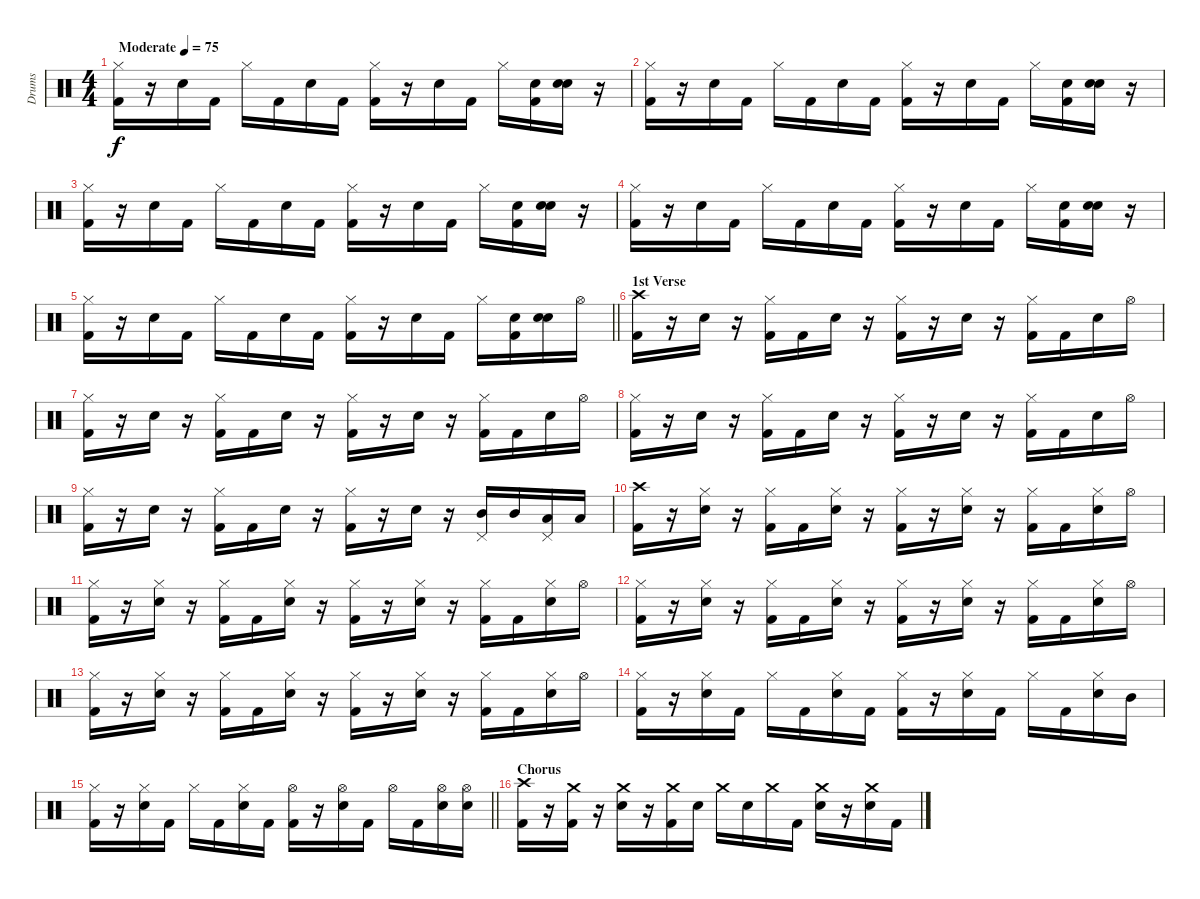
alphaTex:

\track ("Drums" "Drums") {instrument percussion}
\staff {score}
\articulation defaults
\ts (4 4)
\tempo (75 "Moderate")
\clef neutral
\ks c
("Kick (hit) 2" "Hi-Hat (closed)").16{dy f} r.16 "Snare (hit) 2".16 "Kick (hit) 2".16 "Hi-Hat (closed)".16 "Kick (hit) 2".16 "Snare (hit) 2".16 "Kick (hit) 2".16 ("Kick (hit) 2" "Hi-Hat (closed)").16 r.16 "Snare (hit) 2".16 "Kick (hit) 2".16 "Hi-Hat (closed)".16 ("Kick (hit) 2" "Hand Clap (hit)").16 ("Hand Clap (hit)" "Snare (hit) 2").16 r.16 |
("Kick (hit) 2" "Hi-Hat (closed)").16 r.16 "Snare (hit) 2".16 "Kick (hit) 2".16 "Hi-Hat (closed)".16 "Kick (hit) 2".16 "Snare (hit) 2".16 "Kick (hit) 2".16 ("Kick (hit) 2" "Hi-Hat (closed)").16 r.16 "Snare (hit) 2".16 "Kick (hit) 2".16 "Hi-Hat (closed)".16 ("Kick (hit) 2" "Hand Clap (hit)").16 ("Hand Clap (hit)" "Snare (hit) 2").16 r.16 |
("Kick (hit) 2" "Hi-Hat (closed)").16 r.16 "Snare (hit) 2".16 "Kick (hit) 2".16 "Hi-Hat (closed)".16 "Kick (hit) 2".16 "Snare (hit) 2".16 "Kick (hit) 2".16 ("Kick (hit) 2" "Hi-Hat (closed)").16 r.16 "Snare (hit) 2".16 "Kick (hit) 2".16 "Hi-Hat (closed)".16 ("Kick (hit) 2" "Hand Clap (hit)").16 ("Hand Clap (hit)" "Snare (hit) 2").16 r.16 |
("Kick (hit) 2" "Hi-Hat (closed)").16 r.16 "Snare (hit) 2".16 "Kick (hit) 2".16 "Hi-Hat (closed)".16 "Kick (hit) 2".16 "Snare (hit) 2".16 "Kick (hit) 2".16 ("Kick (hit) 2" "Hi-Hat (closed)").16 r.16 "Snare (hit) 2".16 "Kick (hit) 2".16 "Hi-Hat (closed)".16 ("Kick (hit) 2" "Hand Clap (hit)").16 ("Hand Clap (hit)" "Snare (hit) 2").16 r.16 |
\barLineRight lightlight
("Kick (hit) 2" "Hi-Hat (closed)").16 r.16 "Snare (hit) 2".16 "Kick (hit) 2".16 "Hi-Hat (closed)".16 "Kick (hit) 2".16 "Snare (hit) 2".16 "Kick (hit) 2".16 ("Kick (hit) 2" "Hi-Hat (closed)").16 r.16 "Snare (hit) 2".16 "Kick (hit) 2".16 "Hi-Hat (closed)".16 ("Kick (hit) 2" "Hand Clap (hit)").16 ("Hand Clap (hit)" "Snare (hit) 2").16 "Hi-Hat (open)".16 |
\section ("" "1st Verse")
("Kick (hit) 2" "Crash high (hit)").16 r.16 "Snare (hit) 2".16 r.16 ("Kick (hit) 2" "Hi-Hat (closed)").16 "Kick (hit) 2".16 "Snare (hit) 2".16 r.16 ("Kick (hit) 2" "Hi-Hat (closed)").16 r.16 "Snare (hit) 2".16 r.16 ("Kick (hit) 2" "Hi-Hat (closed)").16 "Kick (hit) 2".16 "Snare (hit) 2".16 "Hi-Hat (open)".16 |
("Kick (hit) 2" "Hi-Hat (closed)").16 r.16 "Snare (hit) 2".16 r.16 ("Kick (hit) 2" "Hi-Hat (closed)").16 "Kick (hit) 2".16 "Snare (hit) 2".16 r.16 ("Kick (hit) 2" "Hi-Hat (closed)").16 r.16 "Snare (hit) 2".16 r.16 ("Kick (hit) 2" "Hi-Hat (closed)").16 "Kick (hit) 2".16 "Snare (hit) 2".16 "Hi-Hat (open)".16 |
("Kick (hit) 2" "Hi-Hat (closed)").16 r.16 "Snare (hit) 2".16 r.16 ("Kick (hit) 2" "Hi-Hat (closed)").16 "Kick (hit) 2".16 "Snare (hit) 2".16 r.16 ("Kick (hit) 2" "Hi-Hat (closed)").16 r.16 "Snare (hit) 2".16 r.16 ("Kick (hit) 2" "Hi-Hat (closed)").16 "Kick (hit) 2".16 "Snare (hit) 2".16 "Hi-Hat (open)".16 |
("Kick (hit) 2" "Hi-Hat (closed)").16 r.16 "Snare (hit) 2".16 r.16 ("Kick (hit) 2" "Hi-Hat (closed)").16 "Kick (hit) 2".16 "Snare (hit) 2".16 r.16 ("Kick (hit) 2" "Hi-Hat (closed)").16 r.16 "Snare (hit) 2".16 r.16 ("Mid Tom (hit)" "Pedal Hi-Hat (hit)").16 "Mid Tom (hit)".16 ("Low Tom (hit)" "Pedal Hi-Hat (hit)").16 "Low Tom (hit)".16 |
("Kick (hit) 2" "Crash high (hit)").16 r.16 ("Snare (hit) 2" "Hi-Hat (closed)").16 r.16 ("Kick (hit) 2" "Hi-Hat (closed)").16 "Kick (hit) 2".16 ("Snare (hit) 2" "Hi-Hat (closed)").16 r.16 ("Kick (hit) 2" "Hi-Hat (closed)").16 r.16 ("Snare (hit) 2" "Hi-Hat (closed)").16 r.16 ("Kick (hit) 2" "Hi-Hat (closed)").16 "Kick (hit) 2".16 ("Snare (hit) 2" "Hi-Hat (closed)").16 "Hi-Hat (open)".16 |
("Kick (hit) 2" "Hi-Hat (closed)").16 r.16 ("Snare (hit) 2" "Hi-Hat (closed)").16 r.16 ("Kick (hit) 2" "Hi-Hat (closed)").16 "Kick (hit) 2".16 ("Snare (hit) 2" "Hi-Hat (closed)").16 r.16 ("Kick (hit) 2" "Hi-Hat (closed)").16 r.16 ("Snare (hit) 2" "Hi-Hat (closed)").16 r.16 ("Kick (hit) 2" "Hi-Hat (closed)").16 "Kick (hit) 2".16 ("Snare (hit) 2" "Hi-Hat (closed)").16 "Hi-Hat (open)".16 |
("Kick (hit) 2" "Hi-Hat (closed)").16 r.16 ("Snare (hit) 2" "Hi-Hat (closed)").16 r.16 ("Kick (hit) 2" "Hi-Hat (closed)").16 "Kick (hit) 2".16 ("Snare (hit) 2" "Hi-Hat (closed)").16 r.16 ("Kick (hit) 2" "Hi-Hat (closed)").16 r.16 ("Snare (hit) 2" "Hi-Hat (closed)").16 r.16 ("Kick (hit) 2" "Hi-Hat (closed)").16 "Kick (hit) 2".16 ("Snare (hit) 2" "Hi-Hat (closed)").16 "Hi-Hat (open)".16 |
("Kick (hit) 2" "Hi-Hat (closed)").16 r.16 ("Snare (hit) 2" "Hi-Hat (closed)").16 r.16 ("Kick (hit) 2" "Hi-Hat (closed)").16 "Kick (hit) 2".16 ("Snare (hit) 2" "Hi-Hat (closed)").16 r.16 ("Kick (hit) 2" "Hi-Hat (closed)").16 r.16 ("Snare (hit) 2" "Hi-Hat (closed)").16 r.16 ("Kick (hit) 2" "Hi-Hat (closed)").16 "Kick (hit) 2".16 ("Snare (hit) 2" "Hi-Hat (closed)").16 "Hi-Hat (open)".16 |
("Kick (hit) 2" "Hi-Hat (closed)").16 r.16 ("Snare (hit) 2" "Hi-Hat (closed)").16 "Kick (hit) 2".16 "Hi-Hat (closed)".16 "Kick (hit) 2".16 ("Snare (hit) 2" "Hi-Hat (closed)").16 "Kick (hit) 2".16 ("Kick (hit) 2" "Hi-Hat (closed)").16 r.16 ("Snare (hit) 2" "Hi-Hat (closed)").16 "Kick (hit) 2".16 "Hi-Hat (closed)".16 "Kick (hit) 2".16 ("Snare (hit) 2" "Hi-Hat (closed)").16 "Mid Tom (hit)".16 |
\barLineRight lightlight
("Kick (hit) 2" "Hi-Hat (closed)").16 r.16 ("Snare (hit) 2" "Hi-Hat (closed)").16 "Kick (hit) 2".16 "Hi-Hat (closed)".16 "Kick (hit) 2".16 ("Snare (hit) 2" "Hi-Hat (closed)").16 "Kick (hit) 2".16 ("Kick (hit) 2" "Hi-Hat (open)").16 r.16 ("Snare (hit) 2" "Hi-Hat (open)").16 "Kick (hit) 2".16 "Hi-Hat (open)".16 "Kick (hit) 2".16 ("Snare (hit) 2" "Hi-Hat (open)").16 ("Snare (hit) 2" "Hi-Hat (open)").16 |
\section ("" "Chorus")
("Kick (hit) 2" "Crash high (hit)").16 r.16 ("Kick (hit) 2" "Crash medium (hit)").16 r.16 ("Snare (hit) 2" "Crash medium (hit)").16 r.16 ("Kick (hit) 2" "Crash medium (hit)").16 "Snare (hit) 2".16 "Crash medium (hit)".16 "Snare (hit) 2".16 "Crash medium (hit)".16 "Kick (hit) 2".16 ("Snare (hit) 2" "Crash medium (hit)").16 r.16 ("Snare (hit) 2" "Crash medium (hit)").16 "Kick (hit) 2".16
